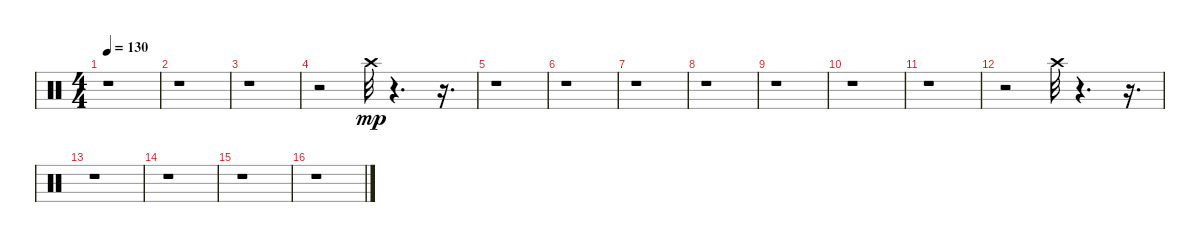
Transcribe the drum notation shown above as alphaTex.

\track "" {instrument percussion}
\staff {score}
\articulation defaults
\ts (4 4)
\tempo 130
\clef neutral
\ks c
r.1{dy mp} |
r.1 |
r.1 |
r.2 "Crash high (hit)".32 r.4{d} r.16{d} |
r.1 |
r.1 |
r.1 |
r.1 |
r.1 |
r.1 |
r.1 |
r.2 "Crash high (hit)".32 r.4{d} r.16{d} |
r.1 |
r.1 |
r.1 |
r.1
